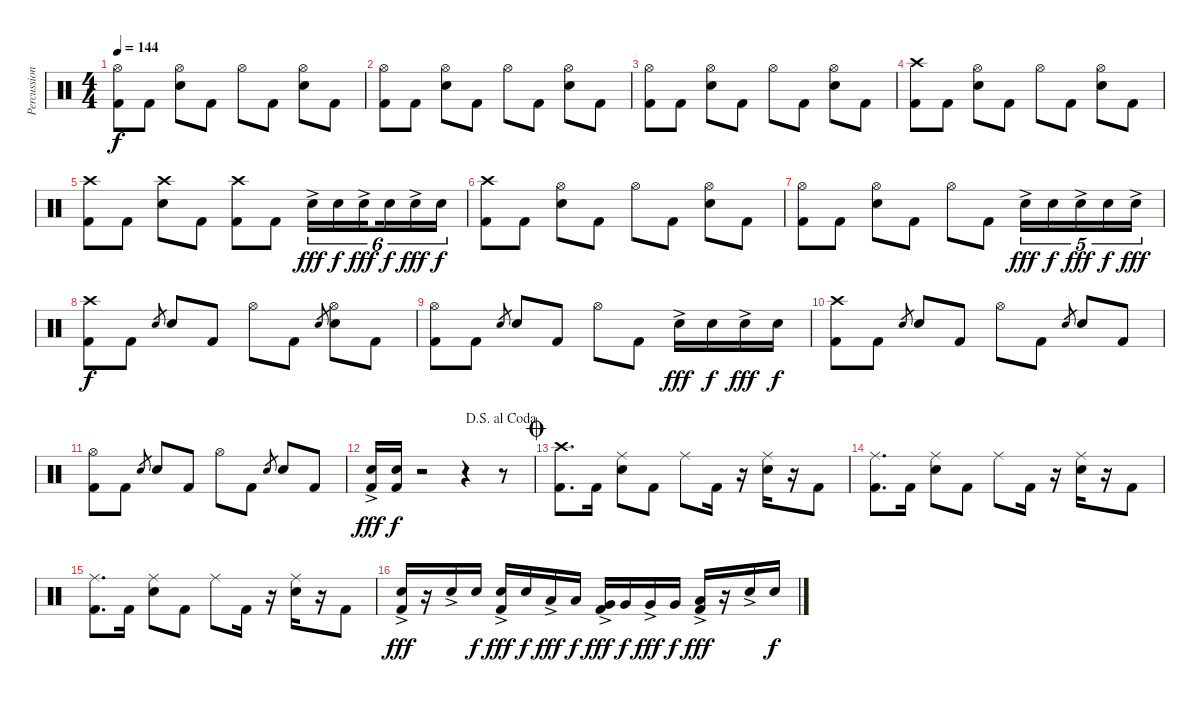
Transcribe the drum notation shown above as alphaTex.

\track ("Percussion" "Percussion") {instrument percussion}
\staff {score}
\articulation defaults
\ts (4 4)
\tempo 144
\clef neutral
\ks c
("Hi-Hat (open)" "Kick (hit) 2").8{dy f} "Kick (hit) 2".8 ("Hi-Hat (open)" "Snare (hit) 2").8 "Kick (hit) 2".8 "Hi-Hat (open)".8 "Kick (hit) 2".8 ("Hi-Hat (open)" "Snare (hit) 2").8 "Kick (hit) 2".8 |
("Hi-Hat (open)" "Kick (hit) 2").8 "Kick (hit) 2".8 ("Hi-Hat (open)" "Snare (hit) 2").8 "Kick (hit) 2".8 "Hi-Hat (open)".8 "Kick (hit) 2".8 ("Hi-Hat (open)" "Snare (hit) 2").8 "Kick (hit) 2".8 |
("Hi-Hat (open)" "Kick (hit) 2").8 "Kick (hit) 2".8 ("Hi-Hat (open)" "Snare (hit) 2").8 "Kick (hit) 2".8 "Hi-Hat (open)".8 "Kick (hit) 2".8 ("Hi-Hat (open)" "Snare (hit) 2").8 "Kick (hit) 2".8 |
("Crash high (hit)" "Kick (hit) 2").8 "Kick (hit) 2".8 ("Hi-Hat (open)" "Snare (hit) 2").8 "Kick (hit) 2".8 "Hi-Hat (open)".8 "Kick (hit) 2".8 ("Hi-Hat (open)" "Snare (hit) 2").8 "Kick (hit) 2".8 |
("Crash high (hit)" "Kick (hit) 2").8 "Kick (hit) 2".8 ("Crash high (hit)" "Snare (hit) 2").8 "Kick (hit) 2".8 ("Crash high (hit)" "Kick (hit) 2").8 "Kick (hit) 2".8 "Snare (hit) 2"{ac}.16{tu (6 4) dy fff} "Snare (hit) 2".16{tu (6 4) dy f} "Snare (hit) 2"{ac}.16{tu (6 4) dy fff beam splitsecondary} "Snare (hit) 2".16{tu (6 4) dy f} "Snare (hit) 2"{ac}.16{tu (6 4) dy fff} "Snare (hit) 2".16{tu (6 4) dy f} |
("Crash high (hit)" "Kick (hit) 2").8 "Kick (hit) 2".8 ("Hi-Hat (open)" "Snare (hit) 2").8 "Kick (hit) 2".8 "Hi-Hat (open)".8 "Kick (hit) 2".8 ("Hi-Hat (open)" "Snare (hit) 2").8 "Kick (hit) 2".8 |
("Hi-Hat (open)" "Kick (hit) 2").8 "Kick (hit) 2".8 ("Hi-Hat (open)" "Snare (hit) 2").8 "Kick (hit) 2".8 "Hi-Hat (open)".8 "Kick (hit) 2".8 "Snare (hit) 2"{ac}.16{tu (5 4) dy fff} "Snare (hit) 2".16{tu (5 4) dy f} "Snare (hit) 2"{ac}.16{tu (5 4) dy fff} "Snare (hit) 2".16{tu (5 4) dy f} "Snare (hit) 2"{ac}.16{tu (5 4) dy fff} |
("Crash high (hit)" "Kick (hit) 2").8{dy f} "Kick (hit) 2".8 "Snare (hit) 2".8{gr} "Snare (hit) 2".8 "Kick (hit) 2".8 "Hi-Hat (open)".8 "Kick (hit) 2".8 "Snare (hit) 2".8{gr} ("Hi-Hat (open)" "Snare (hit) 2").8 "Kick (hit) 2".8 |
("Hi-Hat (open)" "Kick (hit) 2").8 "Kick (hit) 2".8 "Snare (hit) 2".8{gr} "Snare (hit) 2".8 "Kick (hit) 2".8 "Hi-Hat (open)".8 "Kick (hit) 2".8 "Snare (hit) 2"{ac}.16{dy fff} "Snare (hit) 2".16{dy f} "Snare (hit) 2"{ac}.16{dy fff} "Snare (hit) 2".16{dy f} |
("Crash high (hit)" "Kick (hit) 2").8 "Kick (hit) 2".8 "Snare (hit) 2".8{gr} "Snare (hit) 2".8 "Kick (hit) 2".8 "Hi-Hat (open)".8 "Kick (hit) 2".8 "Snare (hit) 2".8{gr} "Snare (hit) 2".8 "Kick (hit) 2".8 |
("Hi-Hat (open)" "Kick (hit) 2").8 "Kick (hit) 2".8 "Snare (hit) 2".8{gr} "Snare (hit) 2".8 "Kick (hit) 2".8 "Hi-Hat (open)".8 "Kick (hit) 2".8 "Snare (hit) 2".8{gr} "Snare (hit) 2".8 "Kick (hit) 2".8 |
\jump dalsegnoalcoda
("Snare (hit) 2"{ac} "Kick (hit) 2").16{dy fff} ("Snare (hit) 2" "Kick (hit) 2").16{dy f} r.2 r.4 r.8 |
\jump coda
("Crash high (hit)" "Kick (hit) 2").8{d} "Kick (hit) 2".16 ("Ride (middle)" "Snare (hit) 2").8 "Kick (hit) 2".8 "Ride (middle)".8 "Kick (hit) 2".16 r.16 ("Ride (middle)" "Snare (hit) 2").16 r.16 "Kick (hit) 2".8 |
("Ride (middle)" "Kick (hit) 2").8{d} "Kick (hit) 2".16 ("Ride (middle)" "Snare (hit) 2").8 "Kick (hit) 2".8 "Ride (middle)".8 "Kick (hit) 2".16 r.16 ("Ride (middle)" "Snare (hit) 2").16 r.16 "Kick (hit) 2".8 |
("Ride (middle)" "Kick (hit) 2").8{d} "Kick (hit) 2".16 ("Ride (middle)" "Snare (hit) 2").8 "Kick (hit) 2".8 "Ride (middle)".8 "Kick (hit) 2".16 r.16 ("Ride (middle)" "Snare (hit) 2").16 r.16 "Kick (hit) 2".8 |
("Snare (hit) 2"{ac} "Kick (hit) 2").16{dy fff} r.16 "Snare (hit) 2"{ac}.16 "Snare (hit) 2".16{dy f} ("Snare (hit) 2"{ac} "Kick (hit) 2").16{dy fff} "Snare (hit) 2".16{dy f} "Low Tom (hit)"{ac}.16{dy fff} "Low Tom (hit)".16{dy f} ("Very Low Tom (hit)"{ac} "Kick (hit) 2").16{dy fff} "Very Low Tom (hit)".16{dy f} "Very Low Tom (hit)"{ac}.16{dy fff} "Very Low Tom (hit)".16{dy f} ("Low Floor Tom (hit)"{ac} "Kick (hit) 2").16{dy fff} r.16 "Snare (hit) 2"{ac}.16 "Snare (hit) 2".16{dy f}
